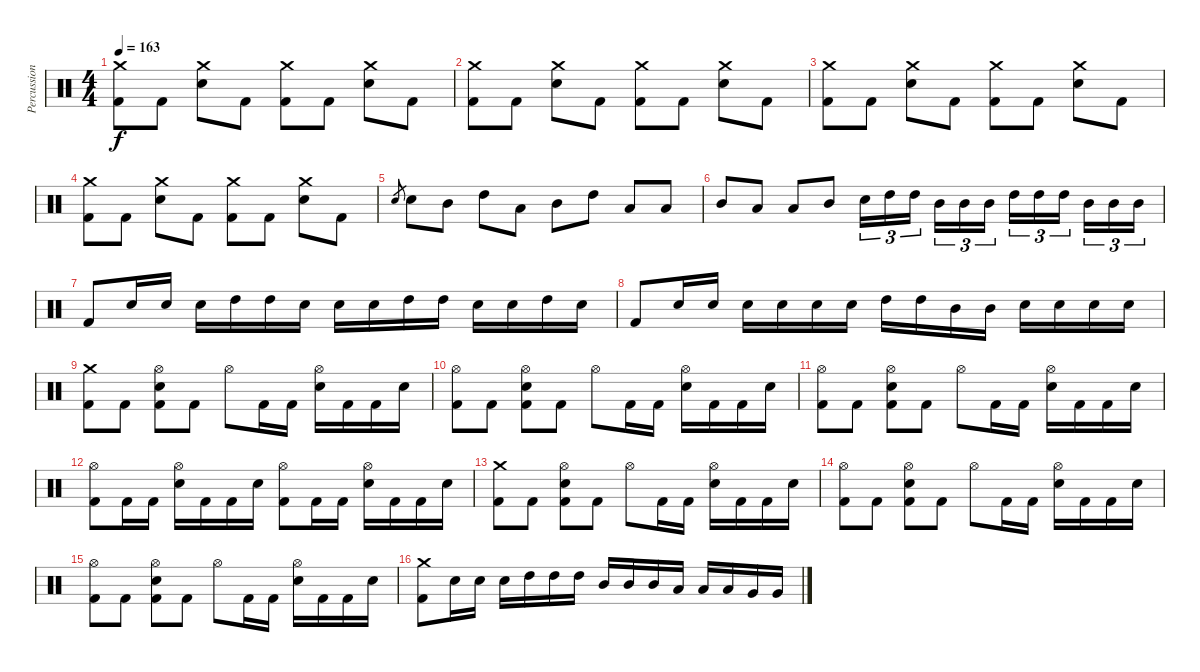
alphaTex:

\track ("Percussion" "Percussion") {instrument percussion}
\staff {score}
\articulation defaults
\ts (4 4)
\tempo 163
\clef neutral
\ks c
("Crash medium (hit)" "Kick (hit) 2").8{dy f} "Kick (hit) 2".8 ("Crash medium (hit)" "Electric Snare (hit)").8 "Kick (hit) 2".8 ("Crash medium (hit)" "Kick (hit) 2").8 "Kick (hit) 2".8 ("Crash medium (hit)" "Electric Snare (hit)").8 "Kick (hit) 2".8 |
("Crash medium (hit)" "Kick (hit) 2").8 "Kick (hit) 2".8 ("Crash medium (hit)" "Electric Snare (hit)").8 "Kick (hit) 2".8 ("Crash medium (hit)" "Kick (hit) 2").8 "Kick (hit) 2".8 ("Crash medium (hit)" "Electric Snare (hit)").8 "Kick (hit) 2".8 |
("Crash medium (hit)" "Kick (hit) 2").8 "Kick (hit) 2".8 ("Crash medium (hit)" "Electric Snare (hit)").8 "Kick (hit) 2".8 ("Crash medium (hit)" "Kick (hit) 2").8 "Kick (hit) 2".8 ("Crash medium (hit)" "Electric Snare (hit)").8 "Kick (hit) 2".8 |
("Crash medium (hit)" "Kick (hit) 2").8 "Kick (hit) 2".8 ("Crash medium (hit)" "Electric Snare (hit)").8 "Kick (hit) 2".8 ("Crash medium (hit)" "Kick (hit) 2").8 "Kick (hit) 2".8 ("Crash medium (hit)" "Electric Snare (hit)").8 "Kick (hit) 2".8 |
"Electric Snare (hit)".8{gr} "Electric Snare (hit)".8 "Mid Tom (hit)".8 "High Tom (hit)".8 "Low Tom (hit)".8 "Mid Tom (hit)".8 "High Tom (hit)".8 "Low Tom (hit)".8 "Low Tom (hit)".8 |
"Mid Tom (hit)".8 "Low Tom (hit)".8 "Low Tom (hit)".8 "Mid Tom (hit)".8 "Electric Snare (hit)".16{tu (3 2)} "High Tom (hit)".16{tu (3 2)} "High Tom (hit)".16{tu (3 2) beam splitsecondary} "Mid Tom (hit)".16{tu (3 2)} "Mid Tom (hit)".16{tu (3 2)} "Mid Tom (hit)".16{tu (3 2)} "High Tom (hit)".16{tu (3 2)} "High Tom (hit)".16{tu (3 2)} "High Tom (hit)".16{tu (3 2) beam splitsecondary} "Mid Tom (hit)".16{tu (3 2)} "Mid Tom (hit)".16{tu (3 2)} "Mid Tom (hit)".16{tu (3 2)} |
"Kick (hit) 2".8 "Electric Snare (hit)".16 "Electric Snare (hit)".16 "Electric Snare (hit)".16 "High Tom (hit)".16 "High Tom (hit)".16 "Electric Snare (hit)".16 "Electric Snare (hit)".16 "Electric Snare (hit)".16 "High Tom (hit)".16 "High Tom (hit)".16 "Electric Snare (hit)".16 "Electric Snare (hit)".16 "High Tom (hit)".16 "Electric Snare (hit)".16 |
"Kick (hit) 2".8 "Electric Snare (hit)".16 "Electric Snare (hit)".16 "Electric Snare (hit)".16 "Electric Snare (hit)".16 "Electric Snare (hit)".16 "Electric Snare (hit)".16 "High Tom (hit)".16 "High Tom (hit)".16 "Mid Tom (hit)".16 "Mid Tom (hit)".16 "Electric Snare (hit)".16 "Electric Snare (hit)".16 "Electric Snare (hit)".16 "Electric Snare (hit)".16 |
("Crash medium (hit)" "Kick (hit) 2").8 "Kick (hit) 2".8 ("Hi-Hat (open)" "Electric Snare (hit)" "Kick (hit) 2").8 "Kick (hit) 2".8 "Hi-Hat (open)".8 "Kick (hit) 2".16 "Kick (hit) 2".16 ("Hi-Hat (open)" "Electric Snare (hit)").16 "Kick (hit) 2".16 "Kick (hit) 2".16 "Electric Snare (hit)".16 |
("Hi-Hat (open)" "Kick (hit) 2").8 "Kick (hit) 2".8 ("Hi-Hat (open)" "Electric Snare (hit)" "Kick (hit) 2").8 "Kick (hit) 2".8 "Hi-Hat (open)".8 "Kick (hit) 2".16 "Kick (hit) 2".16 ("Hi-Hat (open)" "Electric Snare (hit)").16 "Kick (hit) 2".16 "Kick (hit) 2".16 "Electric Snare (hit)".16 |
("Hi-Hat (open)" "Kick (hit) 2").8 "Kick (hit) 2".8 ("Hi-Hat (open)" "Electric Snare (hit)" "Kick (hit) 2").8 "Kick (hit) 2".8 "Hi-Hat (open)".8 "Kick (hit) 2".16 "Kick (hit) 2".16 ("Hi-Hat (open)" "Electric Snare (hit)").16 "Kick (hit) 2".16 "Kick (hit) 2".16 "Electric Snare (hit)".16 |
("Hi-Hat (open)" "Kick (hit) 2").8 "Kick (hit) 2".16 "Kick (hit) 2".16 ("Hi-Hat (open)" "Electric Snare (hit)").16 "Kick (hit) 2".16 "Kick (hit) 2".16 "Electric Snare (hit)".16 ("Hi-Hat (open)" "Kick (hit) 2").8 "Kick (hit) 2".16 "Kick (hit) 2".16 ("Hi-Hat (open)" "Electric Snare (hit)").16 "Kick (hit) 2".16 "Kick (hit) 2".16 "Electric Snare (hit)".16 |
("Crash medium (hit)" "Kick (hit) 2").8 "Kick (hit) 2".8 ("Hi-Hat (open)" "Electric Snare (hit)" "Kick (hit) 2").8 "Kick (hit) 2".8 "Hi-Hat (open)".8 "Kick (hit) 2".16 "Kick (hit) 2".16 ("Hi-Hat (open)" "Electric Snare (hit)").16 "Kick (hit) 2".16 "Kick (hit) 2".16 "Electric Snare (hit)".16 |
("Hi-Hat (open)" "Kick (hit) 2").8 "Kick (hit) 2".8 ("Hi-Hat (open)" "Electric Snare (hit)" "Kick (hit) 2").8 "Kick (hit) 2".8 "Hi-Hat (open)".8 "Kick (hit) 2".16 "Kick (hit) 2".16 ("Hi-Hat (open)" "Electric Snare (hit)").16 "Kick (hit) 2".16 "Kick (hit) 2".16 "Electric Snare (hit)".16 |
("Hi-Hat (open)" "Kick (hit) 2").8 "Kick (hit) 2".8 ("Hi-Hat (open)" "Electric Snare (hit)" "Kick (hit) 2").8 "Kick (hit) 2".8 "Hi-Hat (open)".8 "Kick (hit) 2".16 "Kick (hit) 2".16 ("Hi-Hat (open)" "Electric Snare (hit)").16 "Kick (hit) 2".16 "Kick (hit) 2".16 "Electric Snare (hit)".16 |
("Crash medium (hit)" "Kick (hit) 2").8 "Electric Snare (hit)".16 "Electric Snare (hit)".16 "Electric Snare (hit)".16 "High Tom (hit)".16 "High Tom (hit)".16 "High Tom (hit)".16 "Mid Tom (hit)".16 "Mid Tom (hit)".16 "Mid Tom (hit)".16 "Low Tom (hit)".16 "Low Tom (hit)".16 "Low Tom (hit)".16 "Very Low Tom (hit)".16 "Very Low Tom (hit)".16
